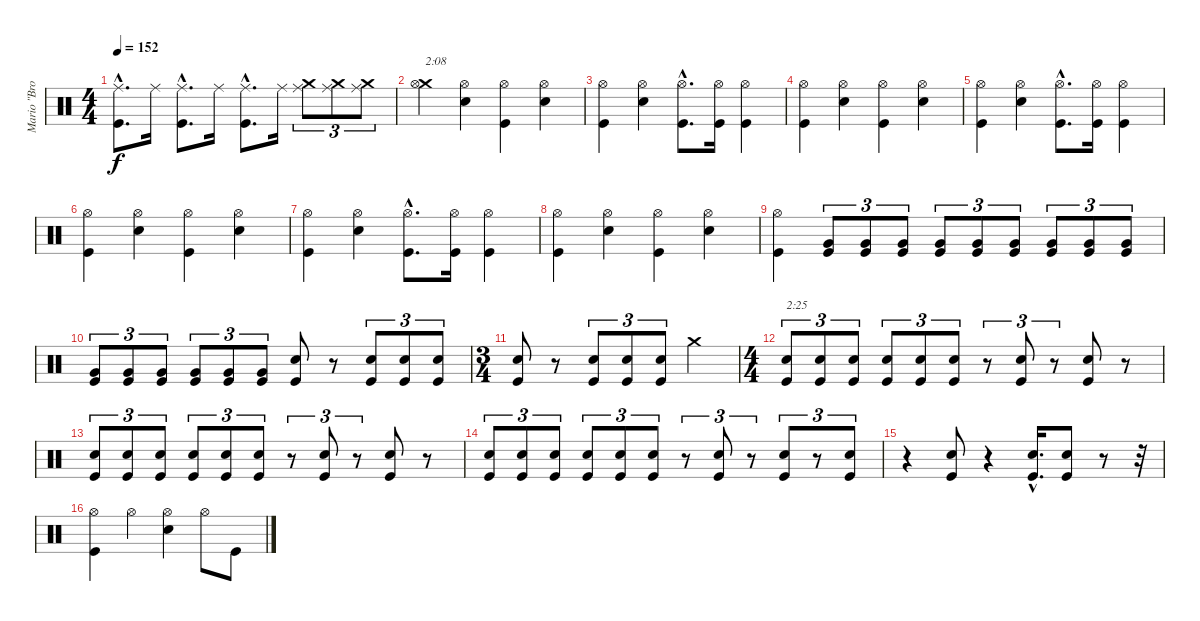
\track ("Mario \"Bros\" Carvajal" "Mario \"Bro") {instrument percussion}
\staff {score}
\articulation defaults
\ts (4 4)
\tempo 152
\clef neutral
\ks c
("Kick (hit)"{hac} "Ride (middle)"{hac}).8{d dy f} "Ride (middle)".16 ("Kick (hit)"{hac} "Ride (middle)"{hac}).8{d} "Ride (middle)".16 ("Kick (hit)"{hac} "Ride (middle)"{hac}).8{d} "Ride (middle)".16 ("Crash medium (hit)" "Ride (middle)").8{tu (3 2)} ("Crash medium (hit)" "Ride (middle)").8{tu (3 2)} ("Crash medium (hit)" "Ride (middle)").8{tu (3 2)} |
("Crash medium (hit)" "Hi-Hat (open)").4{txt "2:08"} ("Snare (hit) 2" "Hi-Hat (open)").4 ("Kick (hit)" "Hi-Hat (open)").4 ("Snare (hit) 2" "Hi-Hat (open)").4 |
("Kick (hit)" "Hi-Hat (open)").4 ("Snare (hit) 2" "Hi-Hat (open)").4 ("Kick (hit)"{hac} "Hi-Hat (open)"{hac}).8{d} ("Kick (hit)" "Hi-Hat (open)").16 ("Kick (hit)" "Hi-Hat (open)").4 |
("Kick (hit)" "Hi-Hat (open)").4 ("Snare (hit) 2" "Hi-Hat (open)").4 ("Kick (hit)" "Hi-Hat (open)").4 ("Snare (hit) 2" "Hi-Hat (open)").4 |
("Kick (hit)" "Hi-Hat (open)").4 ("Snare (hit) 2" "Hi-Hat (open)").4 ("Kick (hit)"{hac} "Hi-Hat (open)"{hac}).8{d} ("Kick (hit)" "Hi-Hat (open)").16 ("Kick (hit)" "Hi-Hat (open)").4 |
("Kick (hit)" "Hi-Hat (open)").4 ("Snare (hit) 2" "Hi-Hat (open)").4 ("Kick (hit)" "Hi-Hat (open)").4 ("Snare (hit) 2" "Hi-Hat (open)").4 |
("Kick (hit)" "Hi-Hat (open)").4 ("Snare (hit) 2" "Hi-Hat (open)").4 ("Kick (hit)"{hac} "Hi-Hat (open)"{hac}).8{d} ("Kick (hit)" "Hi-Hat (open)").16 ("Kick (hit)" "Hi-Hat (open)").4 |
("Kick (hit)" "Hi-Hat (open)").4 ("Snare (hit) 2" "Hi-Hat (open)").4 ("Kick (hit)" "Hi-Hat (open)").4 ("Snare (hit) 2" "Hi-Hat (open)").4 |
("Kick (hit)" "Hi-Hat (open)").4 ("Kick (hit)" "Very Low Tom (hit)").8{tu (3 2)} ("Kick (hit)" "Very Low Tom (hit)").8{tu (3 2)} ("Kick (hit)" "Very Low Tom (hit)").8{tu (3 2)} ("Kick (hit)" "Very Low Tom (hit)").8{tu (3 2)} ("Kick (hit)" "Very Low Tom (hit)").8{tu (3 2)} ("Kick (hit)" "Very Low Tom (hit)").8{tu (3 2)} ("Kick (hit)" "Very Low Tom (hit)").8{tu (3 2)} ("Kick (hit)" "Very Low Tom (hit)").8{tu (3 2)} ("Kick (hit)" "Very Low Tom (hit)").8{tu (3 2)} |
("Kick (hit)" "Very Low Tom (hit)").8{tu (3 2)} ("Kick (hit)" "Very Low Tom (hit)").8{tu (3 2)} ("Kick (hit)" "Very Low Tom (hit)").8{tu (3 2)} ("Kick (hit)" "Very Low Tom (hit)").8{tu (3 2)} ("Kick (hit)" "Very Low Tom (hit)").8{tu (3 2)} ("Kick (hit)" "Very Low Tom (hit)").8{tu (3 2)} ("Kick (hit)" "Snare (hit) 2").8 r.8 ("Kick (hit)" "Snare (hit) 2").8{tu (3 2)} ("Kick (hit)" "Snare (hit) 2").8{tu (3 2)} ("Kick (hit)" "Snare (hit) 2").8{tu (3 2)} |
\ts (3 4)
("Kick (hit)" "Snare (hit) 2").8 r.8 ("Kick (hit)" "Snare (hit) 2").8{tu (3 2)} ("Kick (hit)" "Snare (hit) 2").8{tu (3 2)} ("Kick (hit)" "Snare (hit) 2").8{tu (3 2)} "Crash medium (hit)".4 |
\ts (4 4)
("Kick (hit)" "Snare (hit) 2").8{tu (3 2) txt "2:25"} ("Kick (hit)" "Snare (hit) 2").8{tu (3 2)} ("Kick (hit)" "Snare (hit) 2").8{tu (3 2)} ("Kick (hit)" "Snare (hit) 2").8{tu (3 2)} ("Kick (hit)" "Snare (hit) 2").8{tu (3 2)} ("Kick (hit)" "Snare (hit) 2").8{tu (3 2)} r.8{tu (3 2)} ("Kick (hit)" "Snare (hit) 2").8{tu (3 2)} r.8{tu (3 2)} ("Kick (hit)" "Snare (hit) 2").8 r.8 |
("Kick (hit)" "Snare (hit) 2").8{tu (3 2)} ("Kick (hit)" "Snare (hit) 2").8{tu (3 2)} ("Kick (hit)" "Snare (hit) 2").8{tu (3 2)} ("Kick (hit)" "Snare (hit) 2").8{tu (3 2)} ("Kick (hit)" "Snare (hit) 2").8{tu (3 2)} ("Kick (hit)" "Snare (hit) 2").8{tu (3 2)} r.8{tu (3 2)} ("Kick (hit)" "Snare (hit) 2").8{tu (3 2)} r.8{tu (3 2)} ("Kick (hit)" "Snare (hit) 2").8 r.8 |
("Kick (hit)" "Snare (hit) 2").8{tu (3 2)} ("Kick (hit)" "Snare (hit) 2").8{tu (3 2)} ("Kick (hit)" "Snare (hit) 2").8{tu (3 2)} ("Kick (hit)" "Snare (hit) 2").8{tu (3 2)} ("Kick (hit)" "Snare (hit) 2").8{tu (3 2)} ("Kick (hit)" "Snare (hit) 2").8{tu (3 2)} r.8{tu (3 2)} ("Kick (hit)" "Snare (hit) 2").8{tu (3 2)} r.8{tu (3 2)} ("Kick (hit)" "Snare (hit) 2").8{tu (3 2)} r.8{tu (3 2)} ("Kick (hit)" "Snare (hit) 2").8{tu (3 2)} |
r.4 ("Kick (hit)" "Snare (hit) 2").8 r.4 ("Kick (hit)"{hac} "Snare (hit) 2"{hac}).16{d} ("Kick (hit)" "Snare (hit) 2").8 r.8 r.32 |
("Kick (hit)" "Hi-Hat (open)").4 "Hi-Hat (open)".4 ("Snare (hit) 2" "Hi-Hat (open)").4 "Hi-Hat (open)".8 "Kick (hit)".8
